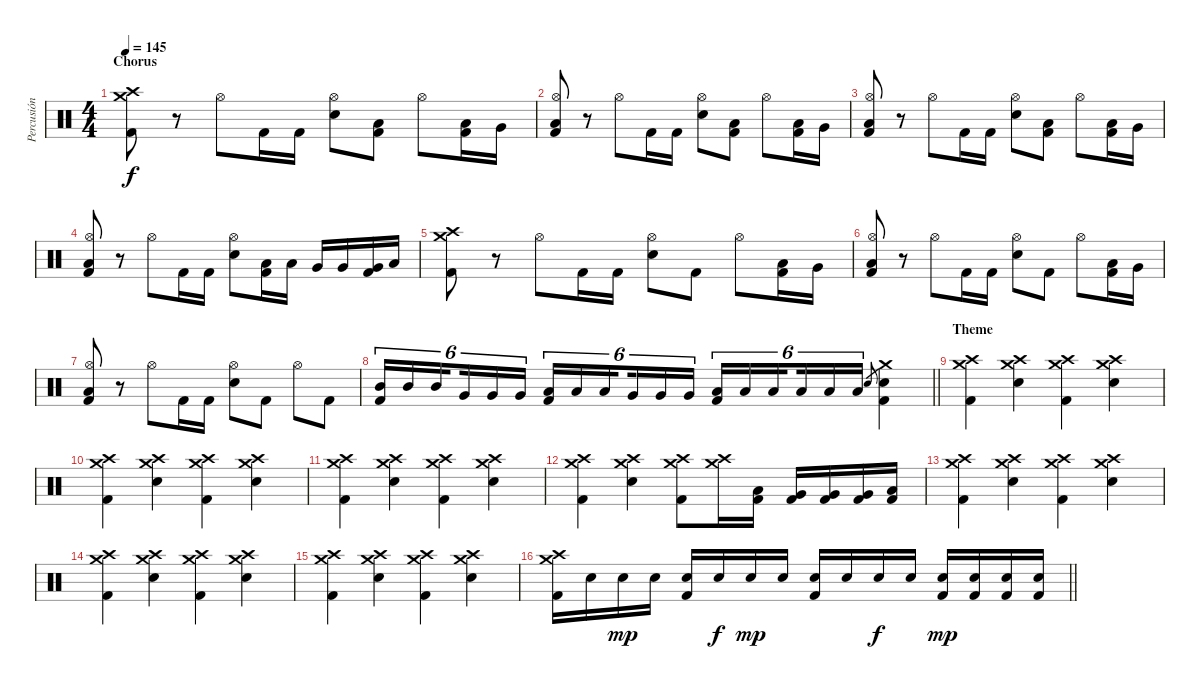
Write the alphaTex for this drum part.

\track ("Percusión" "Percusión") {instrument percussion}
\staff {score}
\articulation defaults
\ts (4 4)
\section ("" "Chorus")
\tempo 145
\clef neutral
\ks c
("Crash medium (hit)" "Crash high (hit)" "Kick (hit) 2").8{dy f} r.8 "Hi-Hat (open)".8 "Kick (hit) 2".16 "Kick (hit) 2".16 ("Hi-Hat (open)" "Electric Snare (hit)").8 ("Low Tom (hit)" "Kick (hit) 2").8 "Hi-Hat (open)".8 ("Low Tom (hit)" "Kick (hit) 2").16 "Very Low Tom (hit)".16 |
("Hi-Hat (open)" "Low Floor Tom (hit)" "Kick (hit) 2").8 r.8 "Hi-Hat (open)".8 "Kick (hit) 2".16 "Kick (hit) 2".16 ("Hi-Hat (open)" "Electric Snare (hit)").8 ("Low Tom (hit)" "Kick (hit) 2").8 "Hi-Hat (open)".8 ("Low Tom (hit)" "Kick (hit) 2").16 "Very Low Tom (hit)".16 |
("Hi-Hat (open)" "Low Floor Tom (hit)" "Kick (hit) 2").8 r.8 "Hi-Hat (open)".8 "Kick (hit) 2".16 "Kick (hit) 2".16 ("Hi-Hat (open)" "Electric Snare (hit)").8 ("Low Tom (hit)" "Kick (hit) 2").8 "Hi-Hat (open)".8 ("Low Tom (hit)" "Kick (hit) 2").16 "Very Low Tom (hit)".16 |
("Hi-Hat (open)" "Low Floor Tom (hit)" "Kick (hit) 2").8 r.8 "Hi-Hat (open)".8 "Kick (hit) 2".16 "Kick (hit) 2".16 ("Hi-Hat (open)" "Electric Snare (hit)").8 ("Low Tom (hit)" "Kick (hit) 2").16 "Low Tom (hit)".16 "Very Low Tom (hit)".16 "Very Low Tom (hit)".16 ("Very Low Tom (hit)" "Kick (hit) 2").16 "Low Floor Tom (hit)".16 |
("Crash medium (hit)" "Crash high (hit)" "Kick (hit) 2").8 r.8 "Hi-Hat (open)".8 "Kick (hit) 2".16 "Kick (hit) 2".16 ("Hi-Hat (open)" "Electric Snare (hit)").8 "Kick (hit) 2".8 "Hi-Hat (open)".8 ("Low Tom (hit)" "Kick (hit) 2").16 "Very Low Tom (hit)".16 |
("Hi-Hat (open)" "Low Floor Tom (hit)" "Kick (hit) 2").8 r.8 "Hi-Hat (open)".8 "Kick (hit) 2".16 "Kick (hit) 2".16 ("Hi-Hat (open)" "Electric Snare (hit)").8 "Kick (hit) 2".8 "Hi-Hat (open)".8 ("Low Tom (hit)" "Kick (hit) 2").16 "Very Low Tom (hit)".16 |
("Hi-Hat (open)" "Low Floor Tom (hit)" "Kick (hit) 2").8 r.8 "Hi-Hat (open)".8 "Kick (hit) 2".16 "Kick (hit) 2".16 ("Hi-Hat (open)" "Electric Snare (hit)").8 "Kick (hit) 2".8 "Hi-Hat (open)".8 "Kick (hit) 2".8 |
\barLineRight lightlight
("Mid Tom (hit)" "Kick (hit) 2").16{tu (6 4)} "Mid Tom (hit)".16{tu (6 4)} "Mid Tom (hit)".16{tu (6 4) beam splitsecondary} "Very Low Tom (hit)".16{tu (6 4)} "Very Low Tom (hit)".16{tu (6 4)} "Very Low Tom (hit)".16{tu (6 4)} ("Low Tom (hit)" "Kick (hit) 2").16{tu (6 4)} "Low Tom (hit)".16{tu (6 4)} "Low Tom (hit)".16{tu (6 4) beam splitsecondary} "Very Low Tom (hit)".16{tu (6 4)} "Very Low Tom (hit)".16{tu (6 4)} "Very Low Tom (hit)".16{tu (6 4)} ("Low Tom (hit)" "Kick (hit) 2").16{tu (6 4)} "Low Tom (hit)".16{tu (6 4)} "Low Tom (hit)".16{tu (6 4) beam splitsecondary} "Low Floor Tom (hit)".16{tu (6 4)} "Low Floor Tom (hit)".16{tu (6 4)} "Low Floor Tom (hit)".16{tu (6 4)} "Electric Snare (hit)".8{gr} ("Crash medium (hit)" "Electric Snare (hit)" "Kick (hit) 2").4 |
\section ("" "Theme")
("Crash medium (hit)" "Crash high (hit)" "Kick (hit) 2").4 ("Crash medium (hit)" "Crash high (hit)" "Electric Snare (hit)").4 ("Crash medium (hit)" "Crash high (hit)" "Kick (hit) 2").4 ("Crash medium (hit)" "Crash high (hit)" "Electric Snare (hit)").4 |
("Crash medium (hit)" "Crash high (hit)" "Kick (hit) 2").4 ("Crash medium (hit)" "Crash high (hit)" "Electric Snare (hit)").4 ("Crash medium (hit)" "Crash high (hit)" "Kick (hit) 2").4 ("Crash medium (hit)" "Crash high (hit)" "Electric Snare (hit)").4 |
("Crash medium (hit)" "Crash high (hit)" "Kick (hit) 2").4 ("Crash medium (hit)" "Crash high (hit)" "Electric Snare (hit)").4 ("Crash medium (hit)" "Crash high (hit)" "Kick (hit) 2").4 ("Crash medium (hit)" "Crash high (hit)" "Electric Snare (hit)").4 |
("Crash medium (hit)" "Crash high (hit)" "Kick (hit) 2").4 ("Crash medium (hit)" "Crash high (hit)" "Electric Snare (hit)").4 ("Crash medium (hit)" "Crash high (hit)" "Kick (hit) 2").8 ("Crash medium (hit)" "Crash high (hit)").16 ("Low Tom (hit)" "Kick (hit) 2").16 ("Very Low Tom (hit)" "Kick (hit) 2").16 ("Very Low Tom (hit)" "Kick (hit) 2").16 ("Very Low Tom (hit)" "Kick (hit) 2").16 ("Low Floor Tom (hit)" "Kick (hit) 2").16 |
("Crash medium (hit)" "Crash high (hit)" "Kick (hit) 2").4 ("Crash medium (hit)" "Crash high (hit)" "Electric Snare (hit)").4 ("Crash medium (hit)" "Crash high (hit)" "Kick (hit) 2").4 ("Crash medium (hit)" "Crash high (hit)" "Electric Snare (hit)").4 |
("Crash medium (hit)" "Crash high (hit)" "Kick (hit) 2").4 ("Crash medium (hit)" "Crash high (hit)" "Electric Snare (hit)").4 ("Crash medium (hit)" "Crash high (hit)" "Kick (hit) 2").4 ("Crash medium (hit)" "Crash high (hit)" "Electric Snare (hit)").4 |
("Crash medium (hit)" "Crash high (hit)" "Kick (hit) 2").4 ("Crash medium (hit)" "Crash high (hit)" "Electric Snare (hit)").4 ("Crash medium (hit)" "Crash high (hit)" "Kick (hit) 2").4 ("Crash medium (hit)" "Crash high (hit)" "Electric Snare (hit)").4 |
\barLineRight lightlight
("Crash medium (hit)" "Crash high (hit)" "Kick (hit) 2").16 "Electric Snare (hit)".16 "Electric Snare (hit)".16{dy mp} "Electric Snare (hit)".16 ("Electric Snare (hit)" "Kick (hit) 2").16 "Electric Snare (hit)".16{dy f} "Electric Snare (hit)".16{dy mp} "Electric Snare (hit)".16 ("Electric Snare (hit)" "Kick (hit) 2").16 "Electric Snare (hit)".16 "Electric Snare (hit)".16{dy f} "Electric Snare (hit)".16 ("Electric Snare (hit)" "Kick (hit) 2").16{dy mp} ("Electric Snare (hit)" "Kick (hit) 2").16 ("Electric Snare (hit)" "Kick (hit) 2").16 ("Electric Snare (hit)" "Kick (hit) 2").16
